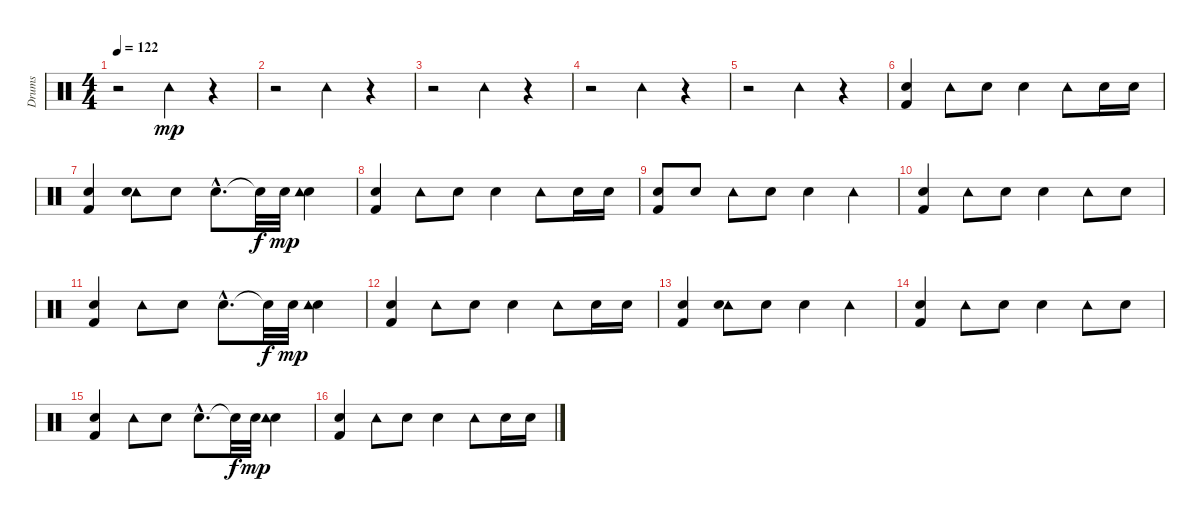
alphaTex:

\track ("Drums" "Drums") {instrument percussion}
\staff {score}
\articulation defaults
\ts (4 4)
\tempo 122
\clef neutral
\ks c
r.2{dy mp} "Tambourine (hit)".4 r.4 |
r.2 "Tambourine (hit)".4 r.4 |
r.2 "Tambourine (hit)".4 r.4 |
r.2 "Tambourine (hit)".4 r.4 |
r.2 "Tambourine (hit)".4 r.4 |
("Kick (hit) 2" "Snare (hit) 2").4 "Tambourine (hit)".8 "Snare (hit) 2".8 "Snare (hit) 2".4 "Tambourine (hit)".8 "Snare (hit) 2".16 "Snare (hit) 2".16 |
("Kick (hit) 2" "Snare (hit) 2").4 ("Tambourine (hit)" "Snare (hit) 2").8 "Snare (hit) 2".8 "Snare (hit) 2"{hac}.8{d} "Snare (hit)"{t}.32{dy f} "Hand Clap (hit)".32{dy mp} ("Hand Clap (hit)" "Tambourine (hit)").4 |
("Kick (hit) 2" "Snare (hit) 2").4 "Tambourine (hit)".8 "Snare (hit) 2".8 "Snare (hit) 2".4 "Tambourine (hit)".8 "Snare (hit) 2".16 "Snare (hit) 2".16 |
("Kick (hit) 2" "Snare (hit) 2").8 "Snare (hit) 2".8 "Tambourine (hit)".8 "Snare (hit) 2".8 "Snare (hit) 2".4 "Tambourine (hit)".4 |
("Kick (hit) 2" "Snare (hit) 2").4 "Tambourine (hit)".8 "Snare (hit) 2".8 "Snare (hit) 2".4 "Tambourine (hit)".8 "Snare (hit) 2".8 |
("Kick (hit) 2" "Snare (hit) 2").4 "Tambourine (hit)".8 "Snare (hit) 2".8 "Snare (hit) 2"{hac}.8{d} "Snare (hit)"{t}.32{dy f} "Hand Clap (hit)".32{dy mp} ("Hand Clap (hit)" "Tambourine (hit)").4 |
("Kick (hit) 2" "Snare (hit) 2").4 "Tambourine (hit)".8 "Snare (hit) 2".8 "Snare (hit) 2".4 "Tambourine (hit)".8 "Snare (hit) 2".16 "Snare (hit) 2".16 |
("Kick (hit) 2" "Snare (hit) 2").4 ("Tambourine (hit)" "Snare (hit) 2").8 "Snare (hit) 2".8 "Snare (hit) 2".4 "Tambourine (hit)".4 |
("Kick (hit) 2" "Snare (hit) 2").4 "Tambourine (hit)".8 "Snare (hit) 2".8 "Snare (hit) 2".4 "Tambourine (hit)".8 "Snare (hit) 2".8 |
("Kick (hit) 2" "Snare (hit) 2").4 "Tambourine (hit)".8 "Snare (hit) 2".8 "Snare (hit) 2"{hac}.8{d} "Snare (hit)"{t}.32{dy f} "Hand Clap (hit)".32{dy mp} ("Hand Clap (hit)" "Tambourine (hit)").4 |
("Kick (hit) 2" "Snare (hit) 2").4 "Tambourine (hit)".8 "Snare (hit) 2".8 "Snare (hit) 2".4 "Tambourine (hit)".8 "Snare (hit) 2".16 "Snare (hit) 2".16
